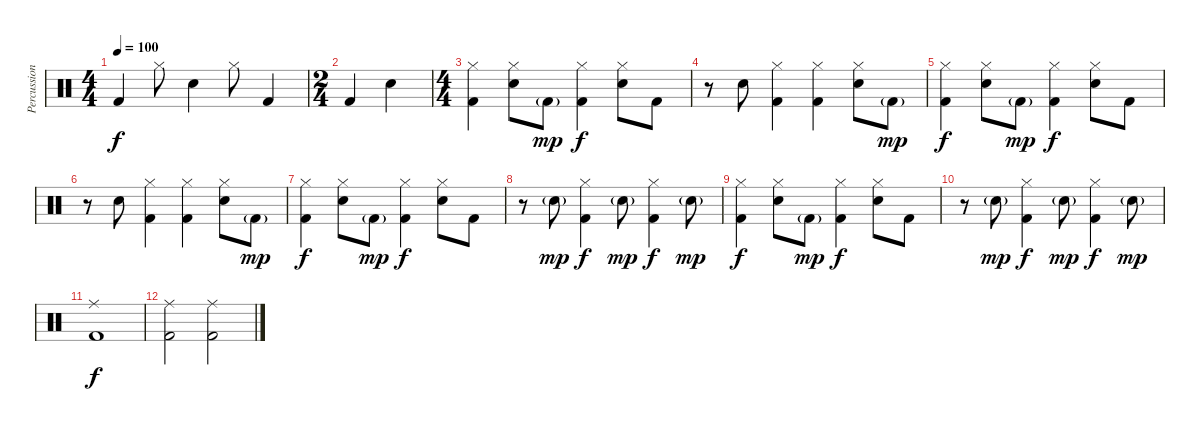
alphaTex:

\track ("Percussion" "Percussion") {instrument percussion}
\staff {score}
\articulation defaults
\ts (4 4)
\tempo 100
\clef neutral
\ks c "Kick (hit) 2".4{dy f} "Hi-Hat (closed)".8 "Snare (hit) 2".4 "Hi-Hat (closed)".8 "Kick (hit) 2".4
|
\ts (2 4)
"Kick (hit) 2".4 "Snare (hit) 2".4 |
\ts (4 4)
("Hi-Hat (closed)" "Kick (hit) 2").4 ("Hi-Hat (closed)" "Snare (hit) 2").8 "Kick (hit) 2"{g}.8{dy mp} ("Hi-Hat (closed)" "Kick (hit) 2").4{dy f} ("Hi-Hat (closed)" "Snare (hit) 2").8 "Kick (hit) 2".8 |
r.8 "Snare (hit) 2".8 ("Hi-Hat (closed)" "Kick (hit) 2").4 ("Hi-Hat (closed)" "Kick (hit) 2").4 ("Hi-Hat (closed)" "Snare (hit) 2").8 "Kick (hit) 2"{g}.8{dy mp} |
("Hi-Hat (closed)" "Kick (hit) 2").4{dy f} ("Hi-Hat (closed)" "Snare (hit) 2").8 "Kick (hit) 2"{g}.8{dy mp} ("Hi-Hat (closed)" "Kick (hit) 2").4{dy f} ("Hi-Hat (closed)" "Snare (hit) 2").8 "Kick (hit) 2".8 |
r.8 "Snare (hit) 2".8 ("Hi-Hat (closed)" "Kick (hit) 2").4 ("Hi-Hat (closed)" "Kick (hit) 2").4 ("Hi-Hat (closed)" "Snare (hit) 2").8 "Kick (hit) 2"{g}.8{dy mp} |
("Hi-Hat (closed)" "Kick (hit) 2").4{dy f} ("Hi-Hat (closed)" "Snare (hit) 2").8 "Kick (hit) 2"{g}.8{dy mp} ("Hi-Hat (closed)" "Kick (hit) 2").4{dy f} ("Hi-Hat (closed)" "Snare (hit) 2").8 "Kick (hit) 2".8 |
r.8 "Snare (hit) 2"{g}.8{dy mp} ("Hi-Hat (closed)" "Kick (hit) 2").4{dy f} "Snare (hit) 2"{g}.8{dy mp} ("Hi-Hat (closed)" "Kick (hit) 2").4{dy f} "Snare (hit) 2"{g}.8{dy mp} |
("Hi-Hat (closed)" "Kick (hit) 2").4{dy f} ("Hi-Hat (closed)" "Snare (hit) 2").8 "Kick (hit) 2"{g}.8{dy mp} ("Hi-Hat (closed)" "Kick (hit) 2").4{dy f} ("Hi-Hat (closed)" "Snare (hit) 2").8 "Kick (hit) 2".8 |
r.8 "Snare (hit) 2"{g}.8{dy mp} ("Hi-Hat (closed)" "Kick (hit) 2").4{dy f} "Snare (hit) 2"{g}.8{dy mp} ("Hi-Hat (closed)" "Kick (hit) 2").4{dy f} "Snare (hit) 2"{g}.8{dy mp} |
("Ride (middle)" "Kick (hit) 2").1{dy f} |
("Ride (middle)" "Kick (hit) 2").2 ("Ride (middle)" "Kick (hit) 2").2
